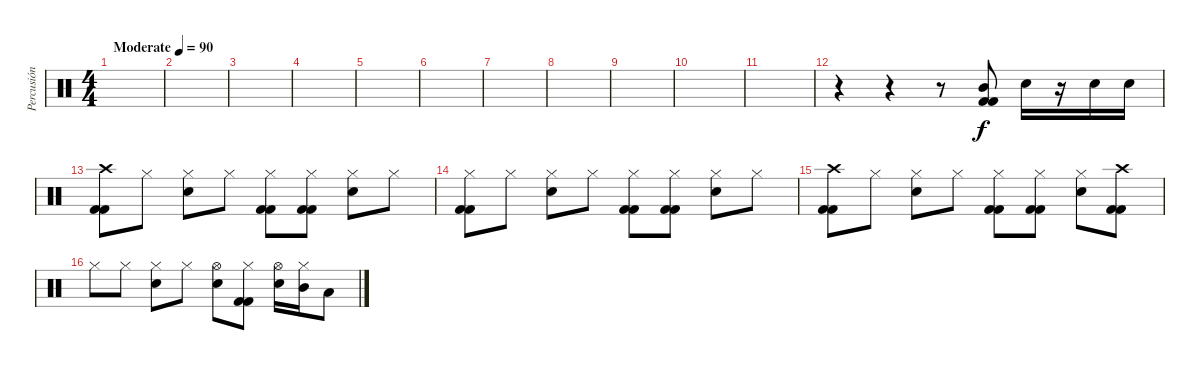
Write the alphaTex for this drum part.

\track ("Percusión" "Percusión") {instrument percussion}
\staff {score}
\articulation defaults
\ts (4 4)
\tempo (90 "Moderate")
\clef neutral
\ks c
|
|
|
|
|
|
|
|
|
|
|
r.4 r.4 r.8 ("Kick (hit) 2" "Mid Tom (hit)" "Kick (hit) 2").8 "Electric Snare (hit)".16 r.16 "Electric Snare (hit)".16 "Electric Snare (hit)".16 |
("Kick (hit) 2" "Crash high (hit)" "Kick (hit) 2").8 "Hi-Hat (closed)".8 ("Electric Snare (hit)" "Hi-Hat (closed)").8 "Hi-Hat (closed)".8 ("Kick (hit) 2" "Hi-Hat (closed)" "Kick (hit) 2").8 ("Kick (hit) 2" "Hi-Hat (closed)" "Kick (hit) 2").8 ("Electric Snare (hit)" "Hi-Hat (closed)").8 "Hi-Hat (closed)".8 |
("Kick (hit) 2" "Hi-Hat (closed)" "Kick (hit) 2").8 "Hi-Hat (closed)".8 ("Electric Snare (hit)" "Hi-Hat (closed)").8 "Hi-Hat (closed)".8 ("Kick (hit) 2" "Hi-Hat (closed)" "Kick (hit) 2").8 ("Kick (hit) 2" "Hi-Hat (closed)" "Kick (hit) 2").8 ("Electric Snare (hit)" "Hi-Hat (closed)").8 "Hi-Hat (closed)".8 |
("Kick (hit) 2" "Crash high (hit)" "Kick (hit) 2").8 "Hi-Hat (closed)".8 ("Electric Snare (hit)" "Hi-Hat (closed)").8 "Hi-Hat (closed)".8 ("Kick (hit) 2" "Hi-Hat (closed)" "Kick (hit) 2").8 ("Kick (hit) 2" "Hi-Hat (closed)" "Kick (hit) 2").8 ("Electric Snare (hit)" "Hi-Hat (closed)").8 ("Kick (hit) 2" "Crash high (hit)" "Kick (hit) 2").8 |
"Hi-Hat (closed)".8 "Hi-Hat (closed)".8 ("Electric Snare (hit)" "Hi-Hat (closed)").8 "Hi-Hat (closed)".8 ("Electric Snare (hit)" "Hi-Hat (open)").8 ("Kick (hit) 2" "Hi-Hat (closed)" "Kick (hit) 2").8 ("Electric Snare (hit)" "Hi-Hat (open)").16 ("Mid Tom (hit)" "Hi-Hat (closed)").16 "Low Tom (hit)".8
